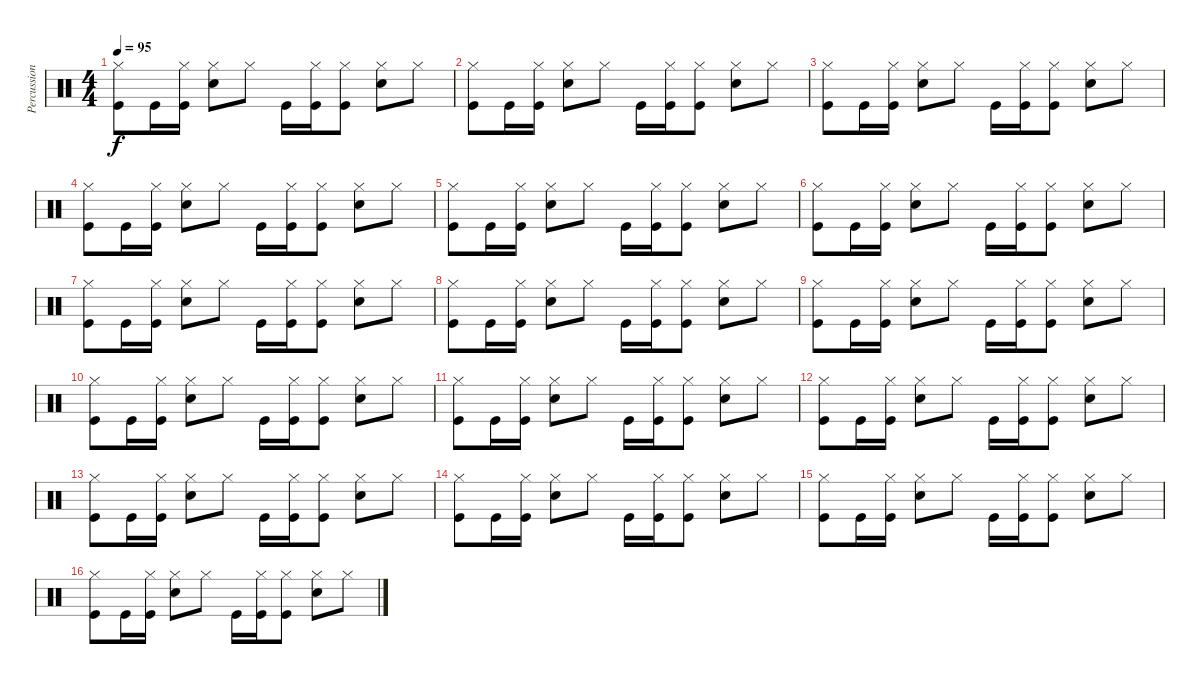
\track ("Percussion" "Percussion") {instrument percussion}
\staff {score}
\articulation defaults
\ts (4 4)
\tempo 95
\clef neutral
\ks c
("Hi-Hat (closed)" "Kick (hit)").8{dy f} "Kick (hit)".16 ("Hi-Hat (closed)" "Kick (hit)").16 ("Hi-Hat (closed)" "Snare (hit) 2").8 "Hi-Hat (closed)".8 "Kick (hit)".16 ("Hi-Hat (closed)" "Kick (hit)").16 ("Hi-Hat (closed)" "Kick (hit)").8 ("Hi-Hat (closed)" "Snare (hit) 2").8 "Hi-Hat (closed)".8 |
("Hi-Hat (closed)" "Kick (hit)").8 "Kick (hit)".16 ("Hi-Hat (closed)" "Kick (hit)").16 ("Hi-Hat (closed)" "Snare (hit) 2").8 "Hi-Hat (closed)".8 "Kick (hit)".16 ("Hi-Hat (closed)" "Kick (hit)").16 ("Hi-Hat (closed)" "Kick (hit)").8 ("Hi-Hat (closed)" "Snare (hit) 2").8 "Hi-Hat (closed)".8 |
("Hi-Hat (closed)" "Kick (hit)").8 "Kick (hit)".16 ("Hi-Hat (closed)" "Kick (hit)").16 ("Hi-Hat (closed)" "Snare (hit) 2").8 "Hi-Hat (closed)".8 "Kick (hit)".16 ("Hi-Hat (closed)" "Kick (hit)").16 ("Hi-Hat (closed)" "Kick (hit)").8 ("Hi-Hat (closed)" "Snare (hit) 2").8 "Hi-Hat (closed)".8 |
("Hi-Hat (closed)" "Kick (hit)").8 "Kick (hit)".16 ("Hi-Hat (closed)" "Kick (hit)").16 ("Hi-Hat (closed)" "Snare (hit) 2").8 "Hi-Hat (closed)".8 "Kick (hit)".16 ("Hi-Hat (closed)" "Kick (hit)").16 ("Hi-Hat (closed)" "Kick (hit)").8 ("Hi-Hat (closed)" "Snare (hit) 2").8 "Hi-Hat (closed)".8 |
("Hi-Hat (closed)" "Kick (hit)").8 "Kick (hit)".16 ("Hi-Hat (closed)" "Kick (hit)").16 ("Hi-Hat (closed)" "Snare (hit) 2").8 "Hi-Hat (closed)".8 "Kick (hit)".16 ("Hi-Hat (closed)" "Kick (hit)").16 ("Hi-Hat (closed)" "Kick (hit)").8 ("Hi-Hat (closed)" "Snare (hit) 2").8 "Hi-Hat (closed)".8 |
("Hi-Hat (closed)" "Kick (hit)").8 "Kick (hit)".16 ("Hi-Hat (closed)" "Kick (hit)").16 ("Hi-Hat (closed)" "Snare (hit) 2").8 "Hi-Hat (closed)".8 "Kick (hit)".16 ("Hi-Hat (closed)" "Kick (hit)").16 ("Hi-Hat (closed)" "Kick (hit)").8 ("Hi-Hat (closed)" "Snare (hit) 2").8 "Hi-Hat (closed)".8 |
("Hi-Hat (closed)" "Kick (hit)").8 "Kick (hit)".16 ("Hi-Hat (closed)" "Kick (hit)").16 ("Hi-Hat (closed)" "Snare (hit) 2").8 "Hi-Hat (closed)".8 "Kick (hit)".16 ("Hi-Hat (closed)" "Kick (hit)").16 ("Hi-Hat (closed)" "Kick (hit)").8 ("Hi-Hat (closed)" "Snare (hit) 2").8 "Hi-Hat (closed)".8 |
("Hi-Hat (closed)" "Kick (hit)").8 "Kick (hit)".16 ("Hi-Hat (closed)" "Kick (hit)").16 ("Hi-Hat (closed)" "Snare (hit) 2").8 "Hi-Hat (closed)".8 "Kick (hit)".16 ("Hi-Hat (closed)" "Kick (hit)").16 ("Hi-Hat (closed)" "Kick (hit)").8 ("Hi-Hat (closed)" "Snare (hit) 2").8 "Hi-Hat (closed)".8 |
("Hi-Hat (closed)" "Kick (hit)").8 "Kick (hit)".16 ("Hi-Hat (closed)" "Kick (hit)").16 ("Hi-Hat (closed)" "Snare (hit) 2").8 "Hi-Hat (closed)".8 "Kick (hit)".16 ("Hi-Hat (closed)" "Kick (hit)").16 ("Hi-Hat (closed)" "Kick (hit)").8 ("Hi-Hat (closed)" "Snare (hit) 2").8 "Hi-Hat (closed)".8 |
("Hi-Hat (closed)" "Kick (hit)").8 "Kick (hit)".16 ("Hi-Hat (closed)" "Kick (hit)").16 ("Hi-Hat (closed)" "Snare (hit) 2").8 "Hi-Hat (closed)".8 "Kick (hit)".16 ("Hi-Hat (closed)" "Kick (hit)").16 ("Hi-Hat (closed)" "Kick (hit)").8 ("Hi-Hat (closed)" "Snare (hit) 2").8 "Hi-Hat (closed)".8 |
("Hi-Hat (closed)" "Kick (hit)").8 "Kick (hit)".16 ("Hi-Hat (closed)" "Kick (hit)").16 ("Hi-Hat (closed)" "Snare (hit) 2").8 "Hi-Hat (closed)".8 "Kick (hit)".16 ("Hi-Hat (closed)" "Kick (hit)").16 ("Hi-Hat (closed)" "Kick (hit)").8 ("Hi-Hat (closed)" "Snare (hit) 2").8 "Hi-Hat (closed)".8 |
("Hi-Hat (closed)" "Kick (hit)").8 "Kick (hit)".16 ("Hi-Hat (closed)" "Kick (hit)").16 ("Hi-Hat (closed)" "Snare (hit) 2").8 "Hi-Hat (closed)".8 "Kick (hit)".16 ("Hi-Hat (closed)" "Kick (hit)").16 ("Hi-Hat (closed)" "Kick (hit)").8 ("Hi-Hat (closed)" "Snare (hit) 2").8 "Hi-Hat (closed)".8 |
("Hi-Hat (closed)" "Kick (hit)").8 "Kick (hit)".16 ("Hi-Hat (closed)" "Kick (hit)").16 ("Hi-Hat (closed)" "Snare (hit) 2").8 "Hi-Hat (closed)".8 "Kick (hit)".16 ("Hi-Hat (closed)" "Kick (hit)").16 ("Hi-Hat (closed)" "Kick (hit)").8 ("Hi-Hat (closed)" "Snare (hit) 2").8 "Hi-Hat (closed)".8 |
("Hi-Hat (closed)" "Kick (hit)").8 "Kick (hit)".16 ("Hi-Hat (closed)" "Kick (hit)").16 ("Hi-Hat (closed)" "Snare (hit) 2").8 "Hi-Hat (closed)".8 "Kick (hit)".16 ("Hi-Hat (closed)" "Kick (hit)").16 ("Hi-Hat (closed)" "Kick (hit)").8 ("Hi-Hat (closed)" "Snare (hit) 2").8 "Hi-Hat (closed)".8 |
("Hi-Hat (closed)" "Kick (hit)").8 "Kick (hit)".16 ("Hi-Hat (closed)" "Kick (hit)").16 ("Hi-Hat (closed)" "Snare (hit) 2").8 "Hi-Hat (closed)".8 "Kick (hit)".16 ("Hi-Hat (closed)" "Kick (hit)").16 ("Hi-Hat (closed)" "Kick (hit)").8 ("Hi-Hat (closed)" "Snare (hit) 2").8 "Hi-Hat (closed)".8 |
("Hi-Hat (closed)" "Kick (hit)").8 "Kick (hit)".16 ("Hi-Hat (closed)" "Kick (hit)").16 ("Hi-Hat (closed)" "Snare (hit) 2").8 "Hi-Hat (closed)".8 "Kick (hit)".16 ("Hi-Hat (closed)" "Kick (hit)").16 ("Hi-Hat (closed)" "Kick (hit)").8 ("Hi-Hat (closed)" "Snare (hit) 2").8 "Hi-Hat (closed)".8
